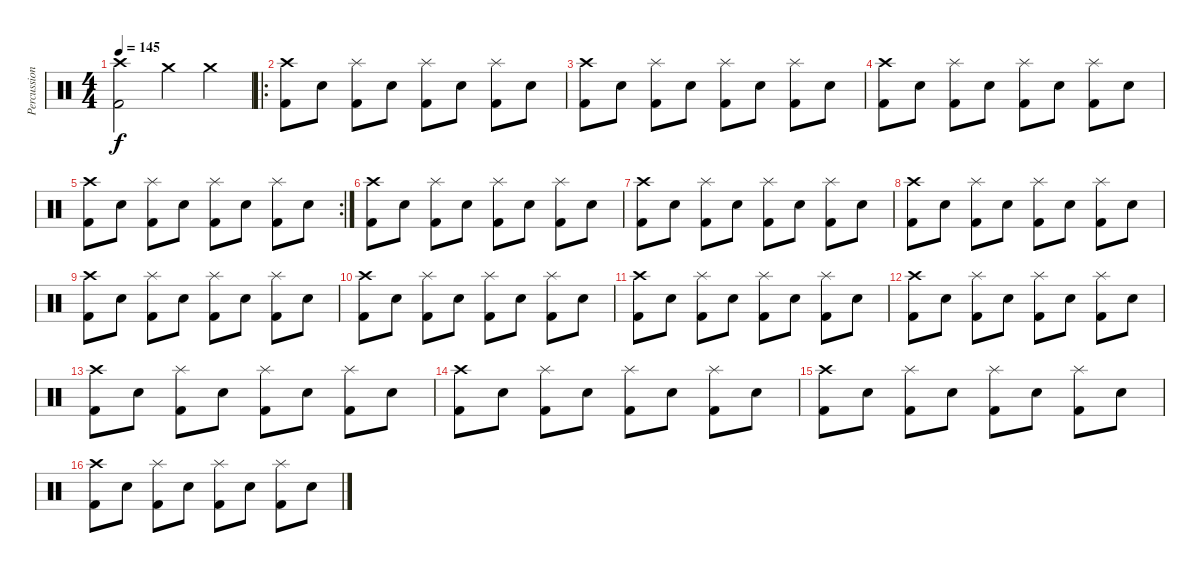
\track ("Percussion" "Percussion") {instrument percussion}
\staff {score}
\articulation defaults
\ts (4 4)
\tempo 145
\clef neutral
\ks c
("Crash high (hit)" "Kick (hit) 2").2{dy f} "Crash medium (hit)".4 "Crash medium (hit)".4 |
\ro
("Crash high (hit)" "Kick (hit) 2").8 "Electric Snare (hit)".8 ("Splash (hit)" "Kick (hit) 2").8 "Electric Snare (hit)".8 ("Splash (hit)" "Kick (hit) 2").8 "Electric Snare (hit)".8 ("Splash (hit)" "Kick (hit) 2").8 "Electric Snare (hit)".8 |
("Crash high (hit)" "Kick (hit) 2").8 "Electric Snare (hit)".8 ("Splash (hit)" "Kick (hit) 2").8 "Electric Snare (hit)".8 ("Splash (hit)" "Kick (hit) 2").8 "Electric Snare (hit)".8 ("Splash (hit)" "Kick (hit) 2").8 "Electric Snare (hit)".8 |
("Crash high (hit)" "Kick (hit) 2").8 "Electric Snare (hit)".8 ("Splash (hit)" "Kick (hit) 2").8 "Electric Snare (hit)".8 ("Splash (hit)" "Kick (hit) 2").8 "Electric Snare (hit)".8 ("Splash (hit)" "Kick (hit) 2").8 "Electric Snare (hit)".8 |
\rc 2
("Crash high (hit)" "Kick (hit) 2").8 "Electric Snare (hit)".8 ("Splash (hit)" "Kick (hit) 2").8 "Electric Snare (hit)".8 ("Splash (hit)" "Kick (hit) 2").8 "Electric Snare (hit)".8 ("Splash (hit)" "Kick (hit) 2").8 "Electric Snare (hit)".8 |
("Crash high (hit)" "Kick (hit) 2").8 "Electric Snare (hit)".8 ("Splash (hit)" "Kick (hit) 2").8 "Electric Snare (hit)".8 ("Splash (hit)" "Kick (hit) 2").8 "Electric Snare (hit)".8 ("Splash (hit)" "Kick (hit) 2").8 "Electric Snare (hit)".8 |
("Crash high (hit)" "Kick (hit) 2").8 "Electric Snare (hit)".8 ("Splash (hit)" "Kick (hit) 2").8 "Electric Snare (hit)".8 ("Splash (hit)" "Kick (hit) 2").8 "Electric Snare (hit)".8 ("Splash (hit)" "Kick (hit) 2").8 "Electric Snare (hit)".8 |
("Crash high (hit)" "Kick (hit) 2").8 "Electric Snare (hit)".8 ("Splash (hit)" "Kick (hit) 2").8 "Electric Snare (hit)".8 ("Splash (hit)" "Kick (hit) 2").8 "Electric Snare (hit)".8 ("Splash (hit)" "Kick (hit) 2").8 "Electric Snare (hit)".8 |
("Crash high (hit)" "Kick (hit) 2").8 "Electric Snare (hit)".8 ("Splash (hit)" "Kick (hit) 2").8 "Electric Snare (hit)".8 ("Splash (hit)" "Kick (hit) 2").8 "Electric Snare (hit)".8 ("Splash (hit)" "Kick (hit) 2").8 "Electric Snare (hit)".8 |
("Crash high (hit)" "Kick (hit) 2").8 "Electric Snare (hit)".8 ("Splash (hit)" "Kick (hit) 2").8 "Electric Snare (hit)".8 ("Splash (hit)" "Kick (hit) 2").8 "Electric Snare (hit)".8 ("Splash (hit)" "Kick (hit) 2").8 "Electric Snare (hit)".8 |
("Crash high (hit)" "Kick (hit) 2").8 "Electric Snare (hit)".8 ("Splash (hit)" "Kick (hit) 2").8 "Electric Snare (hit)".8 ("Splash (hit)" "Kick (hit) 2").8 "Electric Snare (hit)".8 ("Splash (hit)" "Kick (hit) 2").8 "Electric Snare (hit)".8 |
("Crash high (hit)" "Kick (hit) 2").8 "Electric Snare (hit)".8 ("Splash (hit)" "Kick (hit) 2").8 "Electric Snare (hit)".8 ("Splash (hit)" "Kick (hit) 2").8 "Electric Snare (hit)".8 ("Splash (hit)" "Kick (hit) 2").8 "Electric Snare (hit)".8 |
("Crash high (hit)" "Kick (hit) 2").8 "Electric Snare (hit)".8 ("Splash (hit)" "Kick (hit) 2").8 "Electric Snare (hit)".8 ("Splash (hit)" "Kick (hit) 2").8 "Electric Snare (hit)".8 ("Splash (hit)" "Kick (hit) 2").8 "Electric Snare (hit)".8 |
("Crash high (hit)" "Kick (hit) 2").8 "Electric Snare (hit)".8 ("Splash (hit)" "Kick (hit) 2").8 "Electric Snare (hit)".8 ("Splash (hit)" "Kick (hit) 2").8 "Electric Snare (hit)".8 ("Splash (hit)" "Kick (hit) 2").8 "Electric Snare (hit)".8 |
("Crash high (hit)" "Kick (hit) 2").8 "Electric Snare (hit)".8 ("Splash (hit)" "Kick (hit) 2").8 "Electric Snare (hit)".8 ("Splash (hit)" "Kick (hit) 2").8 "Electric Snare (hit)".8 ("Splash (hit)" "Kick (hit) 2").8 "Electric Snare (hit)".8 |
("Crash high (hit)" "Kick (hit) 2").8 "Electric Snare (hit)".8 ("Splash (hit)" "Kick (hit) 2").8 "Electric Snare (hit)".8 ("Splash (hit)" "Kick (hit) 2").8 "Electric Snare (hit)".8 ("Splash (hit)" "Kick (hit) 2").8 "Electric Snare (hit)".8
